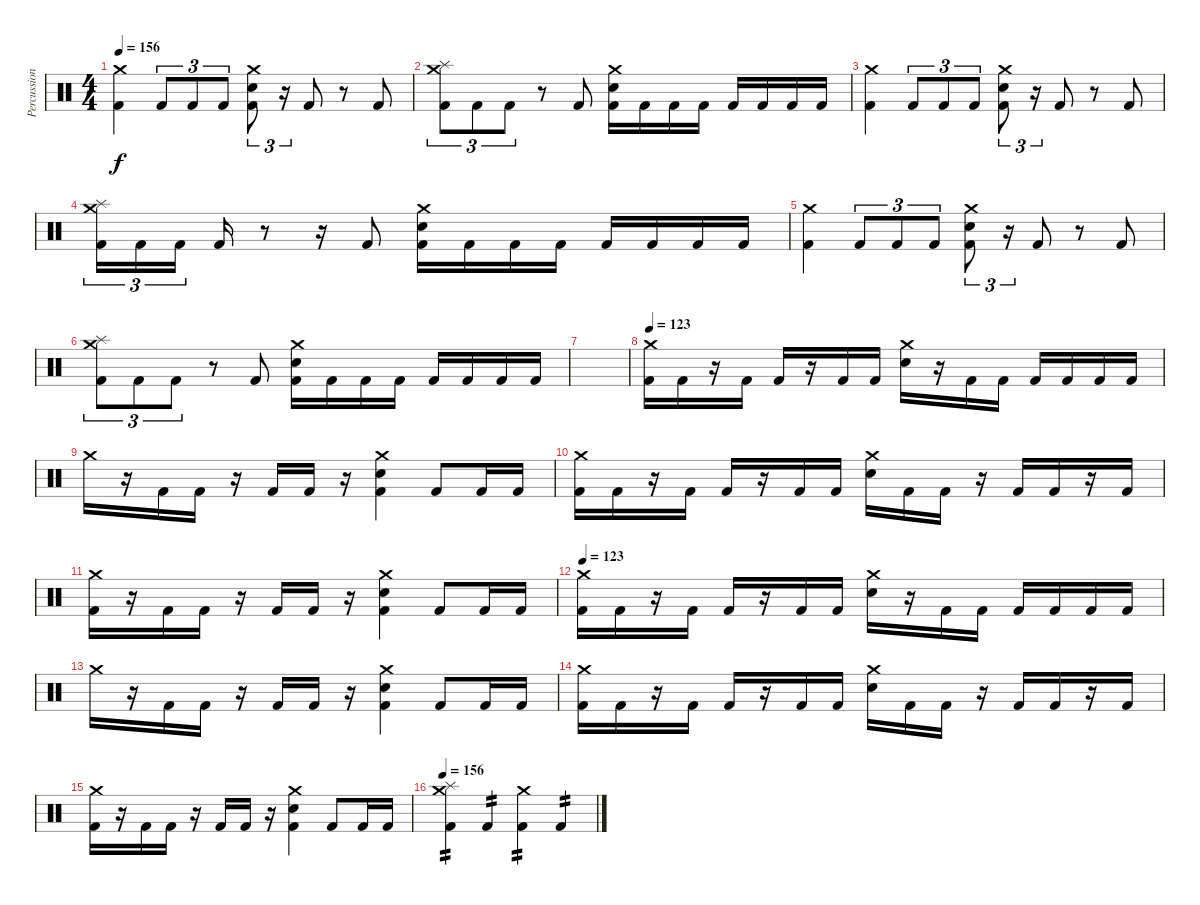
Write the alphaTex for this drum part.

\track ("Percussion" "Percussion") {instrument percussion}
\staff {score}
\articulation defaults
\ts (4 4)
\tempo 156
\clef neutral
\ks c
("Crash medium (hit)" "Kick (hit) 2").4{dy f} "Kick (hit) 2".8{tu (3 2)} "Kick (hit) 2".8{tu (3 2)} "Kick (hit) 2".8{tu (3 2)} ("Crash medium (hit)" "Snare (hit) 2" "Kick (hit) 2").8{tu (3 2)} r.16{tu (3 2)} "Kick (hit) 2".8 r.8 "Kick (hit) 2".8 |
("Crash medium (hit)" "Splash (hit)" "Kick (hit) 2").8{tu (3 2)} "Kick (hit) 2".8{tu (3 2)} "Kick (hit) 2".8{tu (3 2)} r.8 "Kick (hit) 2".8 ("Crash medium (hit)" "Snare (hit) 2" "Kick (hit) 2").16 "Kick (hit) 2".16 "Kick (hit) 2".16 "Kick (hit) 2".16 "Kick (hit) 2".16 "Kick (hit) 2".16 "Kick (hit) 2".16 "Kick (hit) 2".16 |
("Crash medium (hit)" "Kick (hit) 2").4 "Kick (hit) 2".8{tu (3 2)} "Kick (hit) 2".8{tu (3 2)} "Kick (hit) 2".8{tu (3 2)} ("Crash medium (hit)" "Snare (hit) 2" "Kick (hit) 2").8{tu (3 2)} r.16{tu (3 2)} "Kick (hit) 2".8 r.8 "Kick (hit) 2".8 |
("Crash medium (hit)" "Splash (hit)" "Kick (hit) 2").16{tu (3 2)} "Kick (hit) 2".16{tu (3 2)} "Kick (hit) 2".16{tu (3 2) beam splitsecondary} "Kick (hit) 2".16 r.8 r.16 "Kick (hit) 2".8 ("Crash medium (hit)" "Snare (hit) 2" "Kick (hit) 2").16 "Kick (hit) 2".16 "Kick (hit) 2".16 "Kick (hit) 2".16 "Kick (hit) 2".16 "Kick (hit) 2".16 "Kick (hit) 2".16 "Kick (hit) 2".16 |
("Crash medium (hit)" "Kick (hit) 2").4 "Kick (hit) 2".8{tu (3 2)} "Kick (hit) 2".8{tu (3 2)} "Kick (hit) 2".8{tu (3 2)} ("Crash medium (hit)" "Snare (hit) 2" "Kick (hit) 2").8{tu (3 2)} r.16{tu (3 2)} "Kick (hit) 2".8 r.8 "Kick (hit) 2".8 |
("Crash medium (hit)" "Splash (hit)" "Kick (hit) 2").8{tu (3 2)} "Kick (hit) 2".8{tu (3 2)} "Kick (hit) 2".8{tu (3 2)} r.8 "Kick (hit) 2".8 ("Crash medium (hit)" "Snare (hit) 2" "Kick (hit) 2").16 "Kick (hit) 2".16 "Kick (hit) 2".16 "Kick (hit) 2".16 "Kick (hit) 2".16 "Kick (hit) 2".16 "Kick (hit) 2".16 "Kick (hit) 2".16 |
|
\tempo 123
("Crash medium (hit)" "Kick (hit) 2").16 "Kick (hit) 2".16 r.16 "Kick (hit) 2".16 "Kick (hit) 2".16 r.16 "Kick (hit) 2".16 "Kick (hit) 2".16 ("Crash medium (hit)" "Snare (hit) 2").16 r.16 "Kick (hit) 2".16 "Kick (hit) 2".16 "Kick (hit) 2".16 "Kick (hit) 2".16 "Kick (hit) 2".16 "Kick (hit) 2".16 |
"Crash medium (hit)".16 r.16 "Kick (hit) 2".16 "Kick (hit) 2".16 r.16 "Kick (hit) 2".16 "Kick (hit) 2".16 r.16 ("Crash medium (hit)" "Snare (hit) 2" "Kick (hit) 2").4 "Kick (hit) 2".8 "Kick (hit) 2".16 "Kick (hit) 2".16 |
("Crash medium (hit)" "Kick (hit) 2").16 "Kick (hit) 2".16 r.16 "Kick (hit) 2".16 "Kick (hit) 2".16 r.16 "Kick (hit) 2".16 "Kick (hit) 2".16 ("Crash medium (hit)" "Snare (hit) 2").16 "Kick (hit) 2".16 "Kick (hit) 2".16 r.16 "Kick (hit) 2".16 "Kick (hit) 2".16 r.16 "Kick (hit) 2".16 |
("Crash medium (hit)" "Kick (hit) 2").16 r.16 "Kick (hit) 2".16 "Kick (hit) 2".16 r.16 "Kick (hit) 2".16 "Kick (hit) 2".16 r.16 ("Crash medium (hit)" "Snare (hit) 2" "Kick (hit) 2").4 "Kick (hit) 2".8 "Kick (hit) 2".16 "Kick (hit) 2".16 |
\tempo 123
("Crash medium (hit)" "Kick (hit) 2").16 "Kick (hit) 2".16 r.16 "Kick (hit) 2".16 "Kick (hit) 2".16 r.16 "Kick (hit) 2".16 "Kick (hit) 2".16 ("Crash medium (hit)" "Snare (hit) 2").16 r.16 "Kick (hit) 2".16 "Kick (hit) 2".16 "Kick (hit) 2".16 "Kick (hit) 2".16 "Kick (hit) 2".16 "Kick (hit) 2".16 |
"Crash medium (hit)".16 r.16 "Kick (hit) 2".16 "Kick (hit) 2".16 r.16 "Kick (hit) 2".16 "Kick (hit) 2".16 r.16 ("Crash medium (hit)" "Snare (hit) 2" "Kick (hit) 2").4 "Kick (hit) 2".8 "Kick (hit) 2".16 "Kick (hit) 2".16 |
("Crash medium (hit)" "Kick (hit) 2").16 "Kick (hit) 2".16 r.16 "Kick (hit) 2".16 "Kick (hit) 2".16 r.16 "Kick (hit) 2".16 "Kick (hit) 2".16 ("Crash medium (hit)" "Snare (hit) 2").16 "Kick (hit) 2".16 "Kick (hit) 2".16 r.16 "Kick (hit) 2".16 "Kick (hit) 2".16 r.16 "Kick (hit) 2".16 |
("Crash medium (hit)" "Kick (hit) 2").16 r.16 "Kick (hit) 2".16 "Kick (hit) 2".16 r.16 "Kick (hit) 2".16 "Kick (hit) 2".16 r.16 ("Crash medium (hit)" "Snare (hit) 2" "Kick (hit) 2").4 "Kick (hit) 2".8 "Kick (hit) 2".16 "Kick (hit) 2".16 |
\tempo 156
("Crash medium (hit)" "Splash (hit)" "Kick (hit) 2").4{tp 2} "Kick (hit) 2".4{tp 2} ("Crash medium (hit)" "Kick (hit) 2").4{tp 2} "Kick (hit) 2".4{tp 2}
